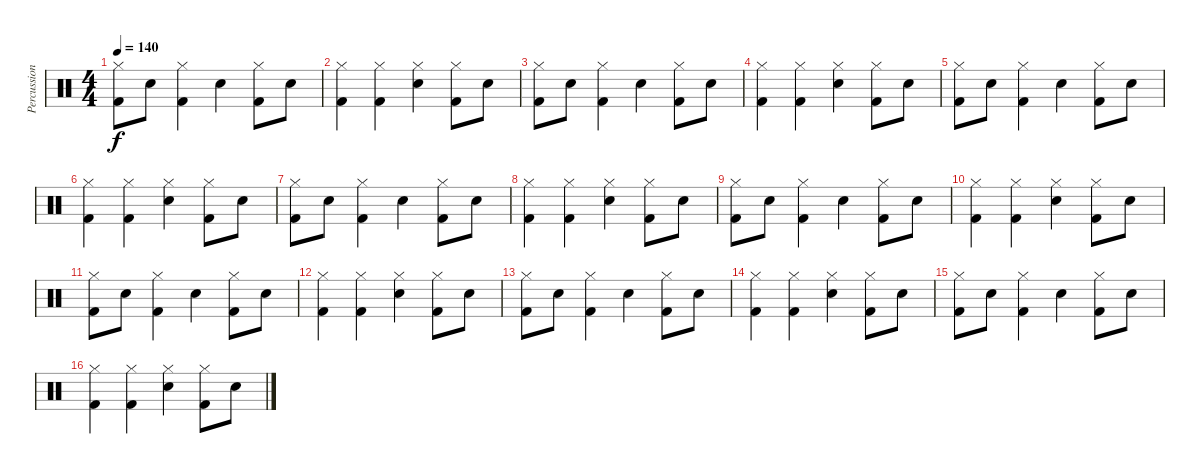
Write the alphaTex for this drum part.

\track ("Percussion" "Percussion") {instrument percussion}
\staff {score}
\articulation defaults
\ts (4 4)
\tempo 140
\clef neutral
\ks c
("Hi-Hat (closed)" "Kick (hit) 2").8{dy f} "Electric Snare (hit)".8 ("Hi-Hat (closed)" "Kick (hit) 2").4 "Electric Snare (hit)".4 ("Hi-Hat (closed)" "Kick (hit) 2").8 "Electric Snare (hit)".8 |
("Hi-Hat (closed)" "Kick (hit) 2").4 ("Hi-Hat (closed)" "Kick (hit) 2").4 ("Hi-Hat (closed)" "Electric Snare (hit)").4 ("Hi-Hat (closed)" "Kick (hit) 2").8 "Electric Snare (hit)".8 |
("Hi-Hat (closed)" "Kick (hit) 2").8 "Electric Snare (hit)".8 ("Hi-Hat (closed)" "Kick (hit) 2").4 "Electric Snare (hit)".4 ("Hi-Hat (closed)" "Kick (hit) 2").8 "Electric Snare (hit)".8 |
("Hi-Hat (closed)" "Kick (hit) 2").4 ("Hi-Hat (closed)" "Kick (hit) 2").4 ("Hi-Hat (closed)" "Electric Snare (hit)").4 ("Hi-Hat (closed)" "Kick (hit) 2").8 "Electric Snare (hit)".8 |
("Hi-Hat (closed)" "Kick (hit) 2").8 "Electric Snare (hit)".8 ("Hi-Hat (closed)" "Kick (hit) 2").4 "Electric Snare (hit)".4 ("Hi-Hat (closed)" "Kick (hit) 2").8 "Electric Snare (hit)".8 |
("Hi-Hat (closed)" "Kick (hit) 2").4 ("Hi-Hat (closed)" "Kick (hit) 2").4 ("Hi-Hat (closed)" "Electric Snare (hit)").4 ("Hi-Hat (closed)" "Kick (hit) 2").8 "Electric Snare (hit)".8 |
("Hi-Hat (closed)" "Kick (hit) 2").8 "Electric Snare (hit)".8 ("Hi-Hat (closed)" "Kick (hit) 2").4 "Electric Snare (hit)".4 ("Hi-Hat (closed)" "Kick (hit) 2").8 "Electric Snare (hit)".8 |
("Hi-Hat (closed)" "Kick (hit) 2").4 ("Hi-Hat (closed)" "Kick (hit) 2").4 ("Hi-Hat (closed)" "Electric Snare (hit)").4 ("Hi-Hat (closed)" "Kick (hit) 2").8 "Electric Snare (hit)".8 |
("Hi-Hat (closed)" "Kick (hit) 2").8 "Electric Snare (hit)".8 ("Hi-Hat (closed)" "Kick (hit) 2").4 "Electric Snare (hit)".4 ("Hi-Hat (closed)" "Kick (hit) 2").8 "Electric Snare (hit)".8 |
("Hi-Hat (closed)" "Kick (hit) 2").4 ("Hi-Hat (closed)" "Kick (hit) 2").4 ("Hi-Hat (closed)" "Electric Snare (hit)").4 ("Hi-Hat (closed)" "Kick (hit) 2").8 "Electric Snare (hit)".8 |
("Hi-Hat (closed)" "Kick (hit) 2").8 "Electric Snare (hit)".8 ("Hi-Hat (closed)" "Kick (hit) 2").4 "Electric Snare (hit)".4 ("Hi-Hat (closed)" "Kick (hit) 2").8 "Electric Snare (hit)".8 |
("Hi-Hat (closed)" "Kick (hit) 2").4 ("Hi-Hat (closed)" "Kick (hit) 2").4 ("Hi-Hat (closed)" "Electric Snare (hit)").4 ("Hi-Hat (closed)" "Kick (hit) 2").8 "Electric Snare (hit)".8 |
("Hi-Hat (closed)" "Kick (hit) 2").8 "Electric Snare (hit)".8 ("Hi-Hat (closed)" "Kick (hit) 2").4 "Electric Snare (hit)".4 ("Hi-Hat (closed)" "Kick (hit) 2").8 "Electric Snare (hit)".8 |
("Hi-Hat (closed)" "Kick (hit) 2").4 ("Hi-Hat (closed)" "Kick (hit) 2").4 ("Hi-Hat (closed)" "Electric Snare (hit)").4 ("Hi-Hat (closed)" "Kick (hit) 2").8 "Electric Snare (hit)".8 |
("Hi-Hat (closed)" "Kick (hit) 2").8 "Electric Snare (hit)".8 ("Hi-Hat (closed)" "Kick (hit) 2").4 "Electric Snare (hit)".4 ("Hi-Hat (closed)" "Kick (hit) 2").8 "Electric Snare (hit)".8 |
("Hi-Hat (closed)" "Kick (hit) 2").4 ("Hi-Hat (closed)" "Kick (hit) 2").4 ("Hi-Hat (closed)" "Electric Snare (hit)").4 ("Hi-Hat (closed)" "Kick (hit) 2").8 "Electric Snare (hit)".8
